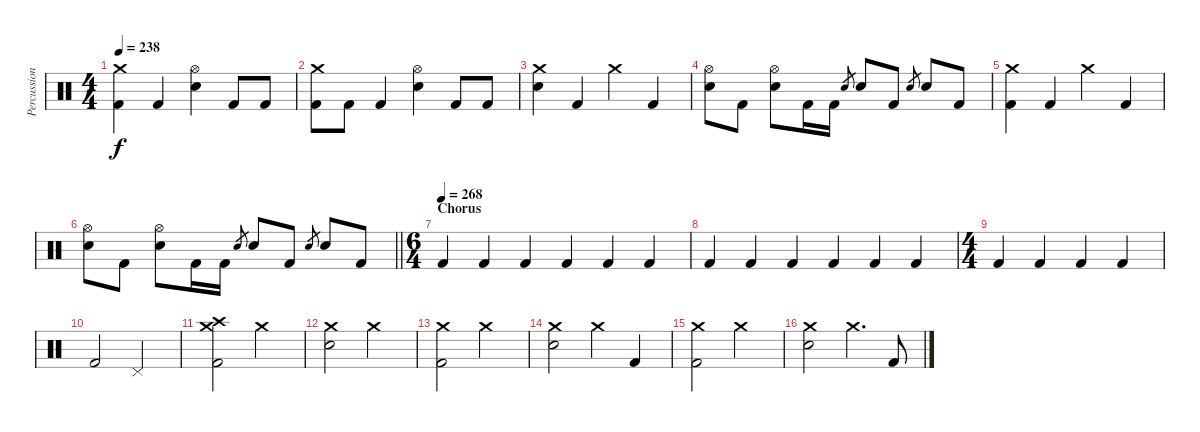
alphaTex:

\track ("Percussion" "Percussion") {instrument percussion}
\staff {score}
\articulation defaults
\ts (4 4)
\tempo 238
\clef neutral
\ks c
("Crash medium (hit)" "Kick (hit) 2").4{dy f} "Kick (hit) 2".4 ("Hi-Hat (open)" "Electric Snare (hit)").4 "Kick (hit) 2".8 "Kick (hit) 2".8 |
("Crash medium (hit)" "Kick (hit) 2").8 "Kick (hit) 2".8 "Kick (hit) 2".4 ("Hi-Hat (open)" "Electric Snare (hit)").4 "Kick (hit) 2".8 "Kick (hit) 2".8 |
("Crash medium (hit)" "Electric Snare (hit)").4 "Kick (hit) 2".4 "Crash medium (hit)".4 "Kick (hit) 2".4 |
("Hi-Hat (open)" "Electric Snare (hit)").8 "Kick (hit) 2".8 ("Hi-Hat (open)" "Electric Snare (hit)").8 "Kick (hit) 2".16 "Kick (hit) 2".16 "Electric Snare (hit)".8{gr} "Electric Snare (hit)".8 "Kick (hit) 2".8 "Electric Snare (hit)".8{gr} "Electric Snare (hit)".8 "Kick (hit) 2".8 |
("Crash medium (hit)" "Kick (hit) 2").4 "Kick (hit) 2".4 "Crash medium (hit)".4 "Kick (hit) 2".4 |
\barLineRight lightlight
("Hi-Hat (open)" "Electric Snare (hit)").8 "Kick (hit) 2".8 ("Hi-Hat (open)" "Electric Snare (hit)").8 "Kick (hit) 2".16 "Kick (hit) 2".16 "Electric Snare (hit)".8{gr} "Electric Snare (hit)".8 "Kick (hit) 2".8 "Electric Snare (hit)".8{gr} "Electric Snare (hit)".8 "Kick (hit) 2".8 |
\ts (6 4)
\section ("" "Chorus")
\tempo (268)
"Kick (hit) 2".4 "Kick (hit) 2".4 "Kick (hit) 2".4 "Kick (hit) 2".4 "Kick (hit) 2".4 "Kick (hit) 2".4 |
"Kick (hit) 2".4 "Kick (hit) 2".4 "Kick (hit) 2".4 "Kick (hit) 2".4 "Kick (hit) 2".4 "Kick (hit) 2".4 |
\ts (4 4)
"Kick (hit) 2".4 "Kick (hit) 2".4 "Kick (hit) 2".4 "Kick (hit) 2".4 |
"Kick (hit) 2".2 "Pedal Hi-Hat (hit)".2 |
("Crash medium (hit)" "Crash high (hit)" "Kick (hit) 2").2 "Crash medium (hit)".2 |
("Crash medium (hit)" "Electric Snare (hit)").2 "Crash medium (hit)".2 |
("Crash medium (hit)" "Kick (hit) 2").2 "Crash medium (hit)".2 |
("Crash medium (hit)" "Electric Snare (hit)").2 "Crash medium (hit)".4 "Kick (hit) 2".4 |
("Crash medium (hit)" "Kick (hit) 2").2 "Crash medium (hit)".2 |
("Crash medium (hit)" "Electric Snare (hit)").2 "Crash medium (hit)".4{d} "Kick (hit) 2".8
